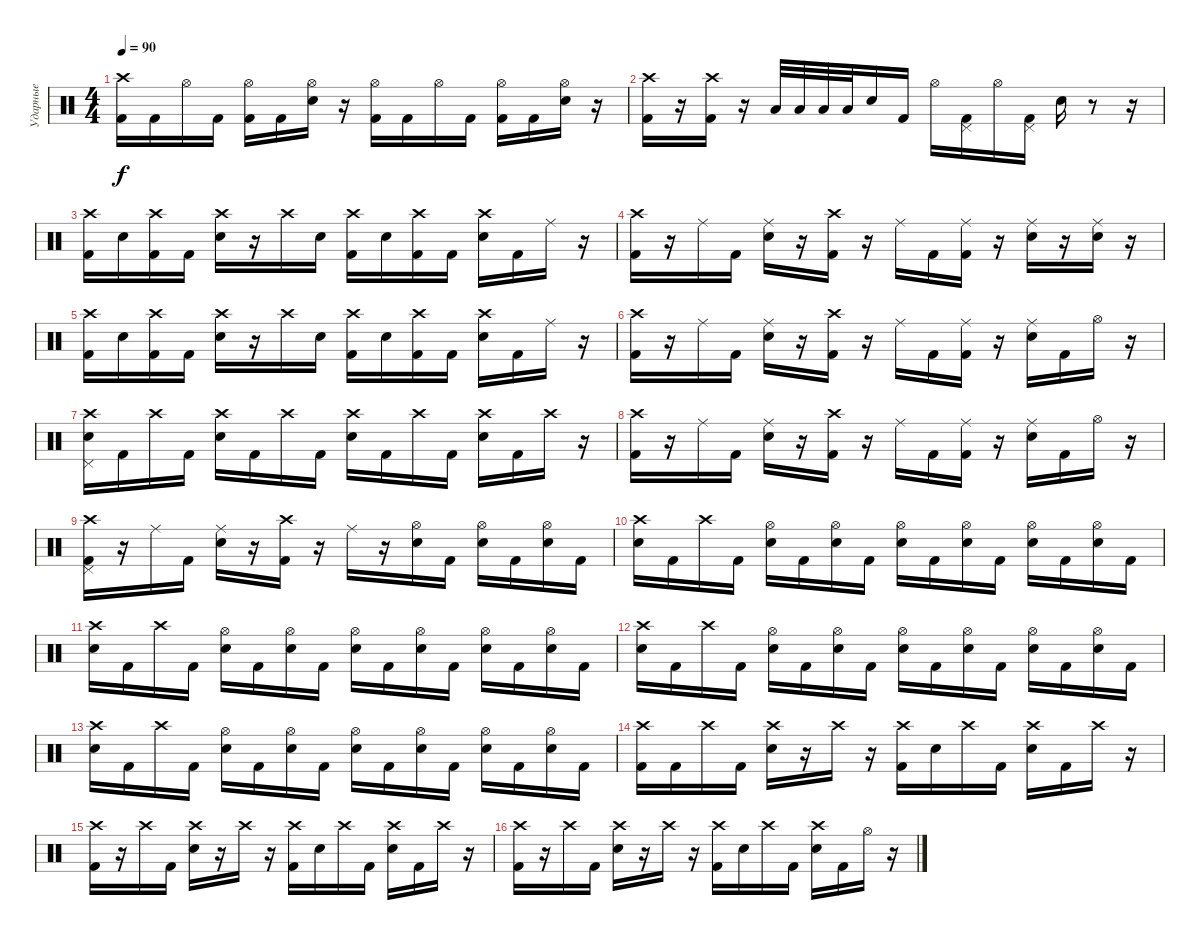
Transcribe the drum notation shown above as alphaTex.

\track ("Ударные" "Ударные") {instrument percussion}
\staff {score}
\articulation defaults
\ts (4 4)
\tempo 90
\clef neutral
\ks c
("Crash high (hit)" "Kick (hit) 2").16{dy f} "Kick (hit) 2".16 "Hi-Hat (open)".16 "Kick (hit) 2".16 ("Hi-Hat (open)" "Kick (hit) 2").16 "Kick (hit) 2".16 ("Hi-Hat (open)" "Electric Snare (hit)").16 r.16 ("Hi-Hat (open)" "Kick (hit) 2").16 "Kick (hit) 2".16 "Hi-Hat (open)".16 "Kick (hit) 2".16 ("Hi-Hat (open)" "Kick (hit) 2").16 "Kick (hit) 2".16 ("Hi-Hat (open)" "Electric Snare (hit)").16 r.16 |
("Crash high (hit)" "Kick (hit) 2").16 r.16 ("Crash high (hit)" "Kick (hit) 2").16 r.16 "Low Tom (hit)".32 "Low Tom (hit)".32 "Low Tom (hit)".32 "Low Tom (hit)".32 "Electric Snare (hit)".16 "Kick (hit) 2".16 "Hi-Hat (open)".16 ("Pedal Hi-Hat (hit)" "Kick (hit) 2").16 "Hi-Hat (open)".16 ("Pedal Hi-Hat (hit)" "Kick (hit) 2").16 "Electric Snare (hit)".16 r.8 r.16 |
("Crash high (hit)" "Kick (hit) 2").16 "Electric Snare (hit)".16 ("Crash high (hit)" "Kick (hit) 2").16 "Kick (hit) 2".16 ("Crash high (hit)" "Electric Snare (hit)").16 r.16 "Crash high (hit)".16 "Electric Snare (hit)".16 ("Crash high (hit)" "Kick (hit) 2").16 "Electric Snare (hit)".16 ("Crash high (hit)" "Kick (hit) 2").16 "Kick (hit) 2".16 ("Crash high (hit)" "Electric Snare (hit)").16 "Kick (hit) 2".16 "Ride (middle)".16 r.16 |
("Crash high (hit)" "Kick (hit) 2").16 r.16 "Ride (middle)".16 "Kick (hit) 2".16 ("Ride (middle)" "Electric Snare (hit)").16 r.16 ("Crash high (hit)" "Kick (hit) 2").16 r.16 "Ride (middle)".16 "Kick (hit) 2".16 ("Ride (middle)" "Kick (hit) 2").16 r.16 ("Ride (middle)" "Electric Snare (hit)").16 r.16 ("Ride (middle)" "Electric Snare (hit)").16 r.16 |
("Crash high (hit)" "Kick (hit) 2").16 "Electric Snare (hit)".16 ("Crash high (hit)" "Kick (hit) 2").16 "Kick (hit) 2".16 ("Crash high (hit)" "Electric Snare (hit)").16 r.16 "Crash high (hit)".16 "Electric Snare (hit)".16 ("Crash high (hit)" "Kick (hit) 2").16 "Electric Snare (hit)".16 ("Crash high (hit)" "Kick (hit) 2").16 "Kick (hit) 2".16 ("Crash high (hit)" "Electric Snare (hit)").16 "Kick (hit) 2".16 "Ride (middle)".16 r.16 |
("Crash high (hit)" "Kick (hit) 2").16 r.16 "Ride (middle)".16 "Kick (hit) 2".16 ("Ride (middle)" "Electric Snare (hit)").16 r.16 ("Crash high (hit)" "Kick (hit) 2").16 r.16 "Ride (middle)".16 "Kick (hit) 2".16 ("Ride (middle)" "Kick (hit) 2").16 r.16 ("Ride (middle)" "Electric Snare (hit)").16 "Kick (hit) 2".16 "Hi-Hat (open)".16 r.16 |
("Crash high (hit)" "Pedal Hi-Hat (hit)" "Electric Snare (hit)").16 "Kick (hit) 2".16 "Crash high (hit)".16 "Kick (hit) 2".16 ("Crash high (hit)" "Electric Snare (hit)").16 "Kick (hit) 2".16 "Crash high (hit)".16 "Kick (hit) 2".16 ("Crash high (hit)" "Electric Snare (hit)").16 "Kick (hit) 2".16 "Crash high (hit)".16 "Kick (hit) 2".16 ("Crash high (hit)" "Electric Snare (hit)").16 "Kick (hit) 2".16 "Crash high (hit)".16 r.16 |
("Crash high (hit)" "Kick (hit) 2").16 r.16 "Ride (middle)".16 "Kick (hit) 2".16 ("Ride (middle)" "Electric Snare (hit)").16 r.16 ("Crash high (hit)" "Kick (hit) 2").16 r.16 "Ride (middle)".16 "Kick (hit) 2".16 ("Ride (middle)" "Kick (hit) 2").16 r.16 ("Ride (middle)" "Electric Snare (hit)").16 "Kick (hit) 2".16 "Hi-Hat (open)".16 r.16 |
("Crash high (hit)" "Pedal Hi-Hat (hit)" "Kick (hit) 2").16 r.16 "Ride (middle)".16 "Kick (hit) 2".16 ("Ride (middle)" "Electric Snare (hit)").16 r.16 ("Crash high (hit)" "Kick (hit) 2").16 r.16 "Ride (middle)".16 r.16 ("Hi-Hat (open)" "Electric Snare (hit)").16 "Kick (hit) 2".16 ("Hi-Hat (open)" "Electric Snare (hit)").16 "Kick (hit) 2".16 ("Hi-Hat (open)" "Electric Snare (hit)").16 "Kick (hit) 2".16 |
("Crash high (hit)" "Electric Snare (hit)").16 "Kick (hit) 2".16 "Crash high (hit)".16 "Kick (hit) 2".16 ("Hi-Hat (open)" "Electric Snare (hit)").16 "Kick (hit) 2".16 ("Hi-Hat (open)" "Electric Snare (hit)").16 "Kick (hit) 2".16 ("Hi-Hat (open)" "Electric Snare (hit)").16 "Kick (hit) 2".16 ("Hi-Hat (open)" "Electric Snare (hit)").16 "Kick (hit) 2".16 ("Hi-Hat (open)" "Electric Snare (hit)").16 "Kick (hit) 2".16 ("Hi-Hat (open)" "Electric Snare (hit)").16 "Kick (hit) 2".16 |
("Crash high (hit)" "Electric Snare (hit)").16 "Kick (hit) 2".16 "Crash high (hit)".16 "Kick (hit) 2".16 ("Hi-Hat (open)" "Electric Snare (hit)").16 "Kick (hit) 2".16 ("Hi-Hat (open)" "Electric Snare (hit)").16 "Kick (hit) 2".16 ("Hi-Hat (open)" "Electric Snare (hit)").16 "Kick (hit) 2".16 ("Hi-Hat (open)" "Electric Snare (hit)").16 "Kick (hit) 2".16 ("Hi-Hat (open)" "Electric Snare (hit)").16 "Kick (hit) 2".16 ("Hi-Hat (open)" "Electric Snare (hit)").16 "Kick (hit) 2".16 |
("Crash high (hit)" "Electric Snare (hit)").16 "Kick (hit) 2".16 "Crash high (hit)".16 "Kick (hit) 2".16 ("Hi-Hat (open)" "Electric Snare (hit)").16 "Kick (hit) 2".16 ("Hi-Hat (open)" "Electric Snare (hit)").16 "Kick (hit) 2".16 ("Hi-Hat (open)" "Electric Snare (hit)").16 "Kick (hit) 2".16 ("Hi-Hat (open)" "Electric Snare (hit)").16 "Kick (hit) 2".16 ("Hi-Hat (open)" "Electric Snare (hit)").16 "Kick (hit) 2".16 ("Hi-Hat (open)" "Electric Snare (hit)").16 "Kick (hit) 2".16 |
("Crash high (hit)" "Electric Snare (hit)").16 "Kick (hit) 2".16 "Crash high (hit)".16 "Kick (hit) 2".16 ("Hi-Hat (open)" "Electric Snare (hit)").16 "Kick (hit) 2".16 ("Hi-Hat (open)" "Electric Snare (hit)").16 "Kick (hit) 2".16 ("Hi-Hat (open)" "Electric Snare (hit)").16 "Kick (hit) 2".16 ("Hi-Hat (open)" "Electric Snare (hit)").16 "Kick (hit) 2".16 ("Hi-Hat (open)" "Electric Snare (hit)").16 "Kick (hit) 2".16 ("Hi-Hat (open)" "Electric Snare (hit)").16 "Kick (hit) 2".16 |
("Crash high (hit)" "Kick (hit) 2").16 "Kick (hit) 2".16 "Crash high (hit)".16 "Kick (hit) 2".16 ("Crash high (hit)" "Electric Snare (hit)").16 r.16 "Crash high (hit)".16 r.16 ("Crash high (hit)" "Kick (hit) 2").16 "Electric Snare (hit)".16 "Crash high (hit)".16 "Kick (hit) 2".16 ("Crash high (hit)" "Electric Snare (hit)").16 "Kick (hit) 2".16 "Crash high (hit)".16 r.16 |
("Crash high (hit)" "Kick (hit) 2").16 r.16 "Crash high (hit)".16 "Kick (hit) 2".16 ("Crash high (hit)" "Electric Snare (hit)").16 r.16 "Crash high (hit)".16 r.16 ("Crash high (hit)" "Kick (hit) 2").16 "Electric Snare (hit)".16 "Crash high (hit)".16 "Kick (hit) 2".16 ("Crash high (hit)" "Electric Snare (hit)").16 "Kick (hit) 2".16 "Crash high (hit)".16 r.16 |
("Crash high (hit)" "Kick (hit) 2").16 r.16 "Crash high (hit)".16 "Kick (hit) 2".16 ("Crash high (hit)" "Electric Snare (hit)").16 r.16 "Crash high (hit)".16 r.16 ("Crash high (hit)" "Kick (hit) 2").16 "Electric Snare (hit)".16 "Crash high (hit)".16 "Kick (hit) 2".16 ("Crash high (hit)" "Electric Snare (hit)").16 "Kick (hit) 2".16 "Hi-Hat (open)".16 r.16
